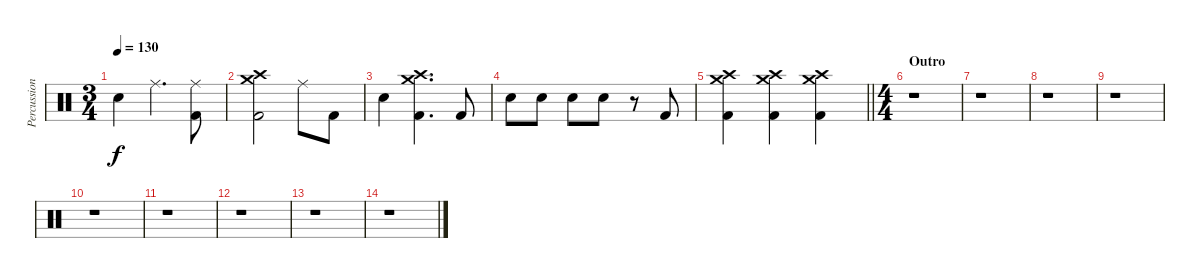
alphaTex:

\track ("Percussion" "Percussion") {instrument percussion}
\staff {score}
\articulation defaults
\ts (3 4)
\tempo 130
\clef neutral
\ks c "Snare (hit) 2".4{dy f} "Ride (middle)".4{d}
("Kick (hit) 2" "Ride (middle)").8 |
("Crash high (hit)" "Crash medium (hit)" "Kick (hit) 2").2 "Ride (middle)".8 "Kick (hit) 2".8 |
"Snare (hit) 2".4 ("Crash high (hit)" "Crash medium (hit)" "Kick (hit) 2").4{d} "Kick (hit) 2".8 |
"Snare (hit) 2".8 "Snare (hit) 2".8 "Snare (hit) 2".8 "Snare (hit) 2".8 r.8 "Kick (hit) 2".8 |
\barLineRight lightlight
("Crash high (hit)" "Crash medium (hit)" "Kick (hit) 2").4 ("Crash high (hit)" "Crash medium (hit)" "Kick (hit) 2").4 ("Crash high (hit)" "Crash medium (hit)" "Kick (hit) 2").4 |
\ts (4 4)
\section ("" "Outro")
r.1 |
r.1 |
r.1 |
r.1 |
r.1 |
r.1 |
r.1 |
r.1 |
r.1
